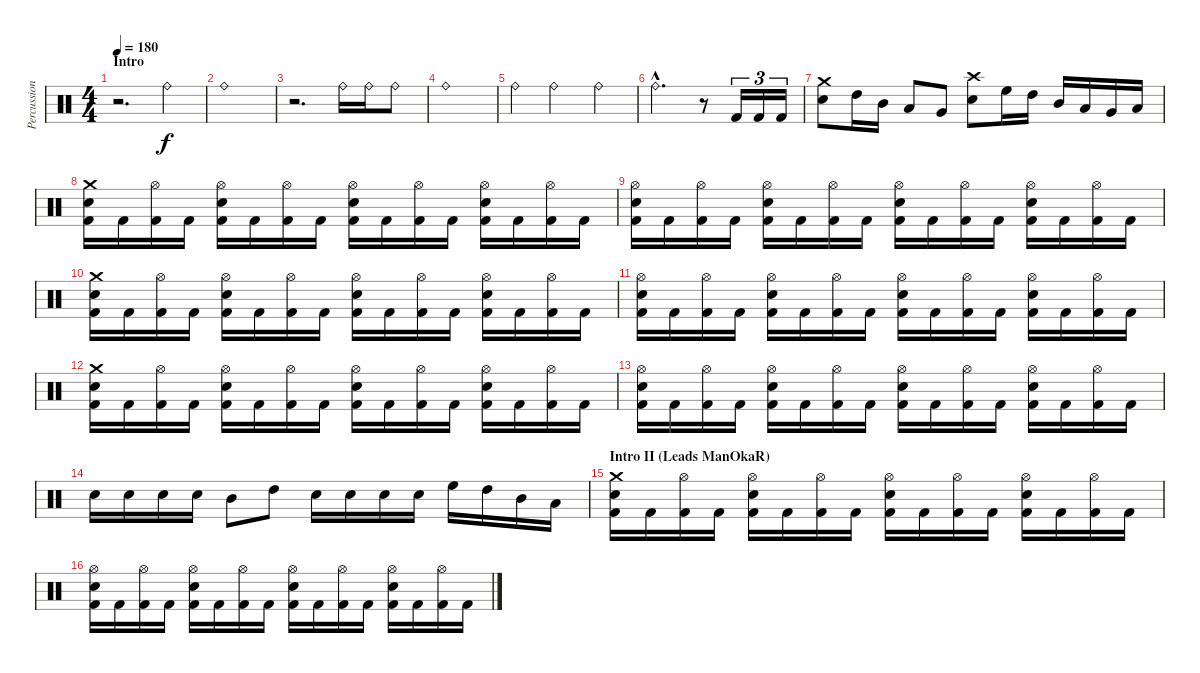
\track ("Percussion" "Percussion") {instrument percussion}
\staff {score}
\articulation defaults
\ts (4 4)
\section ("" "Intro ")
\tempo 180
\clef neutral
\ks c
r.2{d dy f} "Ride (bell)".4 |
"Ride (bell)".1 |
r.2{d} "Ride (bell)".16 "Ride (bell)".16 "Ride (bell)".8 |
"Ride (bell)".1 |
"Ride (bell)".4 "Ride (bell)".2 "Ride (bell)".4 |
"Ride (bell)"{hac}.2{d} r.8 "Kick (hit) 2".16{tu (3 2)} "Kick (hit) 2".16{tu (3 2)} "Kick (hit) 2".16{tu (3 2)} |
("Snare (hit) 2" "Crash medium (hit)").8 "High Tom (hit)".16 "Mid Tom (hit)".16 "Low Tom (hit)".8 "Very Low Tom (hit)".8 ("Snare (hit) 2" "Crash high (hit)").8 "High Floor Tom (hit)".16 "High Tom (hit)".16 "Mid Tom (hit)".16 "Low Tom (hit)".16 "Very Low Tom (hit)".16 "Low Floor Tom (hit)".16 |
("Crash medium (hit)" "Snare (hit) 2" "Kick (hit) 2").16 "Kick (hit) 2".16 ("Hi-Hat (open)" "Kick (hit) 2").16 "Kick (hit) 2".16 ("Hi-Hat (open)" "Snare (hit) 2" "Kick (hit) 2").16 "Kick (hit) 2".16 ("Hi-Hat (open)" "Kick (hit) 2").16 "Kick (hit) 2".16 ("Hi-Hat (open)" "Snare (hit) 2" "Kick (hit) 2").16 "Kick (hit) 2".16 ("Hi-Hat (open)" "Kick (hit) 2").16 "Kick (hit) 2".16 ("Hi-Hat (open)" "Snare (hit) 2" "Kick (hit) 2").16 "Kick (hit) 2".16 ("Hi-Hat (open)" "Kick (hit) 2").16 "Kick (hit) 2".16 |
("Hi-Hat (open)" "Snare (hit) 2" "Kick (hit) 2").16 "Kick (hit) 2".16 ("Hi-Hat (open)" "Kick (hit) 2").16 "Kick (hit) 2".16 ("Hi-Hat (open)" "Snare (hit) 2" "Kick (hit) 2").16 "Kick (hit) 2".16 ("Hi-Hat (open)" "Kick (hit) 2").16 "Kick (hit) 2".16 ("Hi-Hat (open)" "Snare (hit) 2" "Kick (hit) 2").16 "Kick (hit) 2".16 ("Hi-Hat (open)" "Kick (hit) 2").16 "Kick (hit) 2".16 ("Hi-Hat (open)" "Snare (hit) 2" "Kick (hit) 2").16 "Kick (hit) 2".16 ("Hi-Hat (open)" "Kick (hit) 2").16 "Kick (hit) 2".16 |
("Crash medium (hit)" "Snare (hit) 2" "Kick (hit) 2").16 "Kick (hit) 2".16 ("Hi-Hat (open)" "Kick (hit) 2").16 "Kick (hit) 2".16 ("Hi-Hat (open)" "Snare (hit) 2" "Kick (hit) 2").16 "Kick (hit) 2".16 ("Hi-Hat (open)" "Kick (hit) 2").16 "Kick (hit) 2".16 ("Hi-Hat (open)" "Snare (hit) 2" "Kick (hit) 2").16 "Kick (hit) 2".16 ("Hi-Hat (open)" "Kick (hit) 2").16 "Kick (hit) 2".16 ("Hi-Hat (open)" "Snare (hit) 2" "Kick (hit) 2").16 "Kick (hit) 2".16 ("Hi-Hat (open)" "Kick (hit) 2").16 "Kick (hit) 2".16 |
("Hi-Hat (open)" "Snare (hit) 2" "Kick (hit) 2").16 "Kick (hit) 2".16 ("Hi-Hat (open)" "Kick (hit) 2").16 "Kick (hit) 2".16 ("Hi-Hat (open)" "Snare (hit) 2" "Kick (hit) 2").16 "Kick (hit) 2".16 ("Hi-Hat (open)" "Kick (hit) 2").16 "Kick (hit) 2".16 ("Hi-Hat (open)" "Snare (hit) 2" "Kick (hit) 2").16 "Kick (hit) 2".16 ("Hi-Hat (open)" "Kick (hit) 2").16 "Kick (hit) 2".16 ("Hi-Hat (open)" "Snare (hit) 2" "Kick (hit) 2").16 "Kick (hit) 2".16 ("Hi-Hat (open)" "Kick (hit) 2").16 "Kick (hit) 2".16 |
("Crash medium (hit)" "Snare (hit) 2" "Kick (hit) 2").16 "Kick (hit) 2".16 ("Hi-Hat (open)" "Kick (hit) 2").16 "Kick (hit) 2".16 ("Hi-Hat (open)" "Snare (hit) 2" "Kick (hit) 2").16 "Kick (hit) 2".16 ("Hi-Hat (open)" "Kick (hit) 2").16 "Kick (hit) 2".16 ("Hi-Hat (open)" "Snare (hit) 2" "Kick (hit) 2").16 "Kick (hit) 2".16 ("Hi-Hat (open)" "Kick (hit) 2").16 "Kick (hit) 2".16 ("Hi-Hat (open)" "Snare (hit) 2" "Kick (hit) 2").16 "Kick (hit) 2".16 ("Hi-Hat (open)" "Kick (hit) 2").16 "Kick (hit) 2".16 |
("Hi-Hat (open)" "Snare (hit) 2" "Kick (hit) 2").16 "Kick (hit) 2".16 ("Hi-Hat (open)" "Kick (hit) 2").16 "Kick (hit) 2".16 ("Hi-Hat (open)" "Snare (hit) 2" "Kick (hit) 2").16 "Kick (hit) 2".16 ("Hi-Hat (open)" "Kick (hit) 2").16 "Kick (hit) 2".16 ("Hi-Hat (open)" "Snare (hit) 2" "Kick (hit) 2").16 "Kick (hit) 2".16 ("Hi-Hat (open)" "Kick (hit) 2").16 "Kick (hit) 2".16 ("Hi-Hat (open)" "Snare (hit) 2" "Kick (hit) 2").16 "Kick (hit) 2".16 ("Hi-Hat (open)" "Kick (hit) 2").16 "Kick (hit) 2".16 |
"Snare (hit) 2".16 "Snare (hit) 2".16 "Snare (hit) 2".16 "Snare (hit) 2".16 "Mid Tom (hit)".8 "High Tom (hit)".8 "Snare (hit) 2".16 "Snare (hit) 2".16 "Snare (hit) 2".16 "Snare (hit) 2".16 "High Floor Tom (hit)".16 "High Tom (hit)".16 "Mid Tom (hit)".16 "Low Tom (hit)".16 |
\section ("" "Intro II (Leads ManOkaR)")
("Crash medium (hit)" "Snare (hit) 2" "Kick (hit) 2").16 "Kick (hit) 2".16 ("Hi-Hat (open)" "Kick (hit) 2").16 "Kick (hit) 2".16 ("Hi-Hat (open)" "Snare (hit) 2" "Kick (hit) 2").16 "Kick (hit) 2".16 ("Hi-Hat (open)" "Kick (hit) 2").16 "Kick (hit) 2".16 ("Hi-Hat (open)" "Snare (hit) 2" "Kick (hit) 2").16 "Kick (hit) 2".16 ("Hi-Hat (open)" "Kick (hit) 2").16 "Kick (hit) 2".16 ("Hi-Hat (open)" "Snare (hit) 2" "Kick (hit) 2").16 "Kick (hit) 2".16 ("Hi-Hat (open)" "Kick (hit) 2").16 "Kick (hit) 2".16 |
("Hi-Hat (open)" "Snare (hit) 2" "Kick (hit) 2").16 "Kick (hit) 2".16 ("Hi-Hat (open)" "Kick (hit) 2").16 "Kick (hit) 2".16 ("Hi-Hat (open)" "Snare (hit) 2" "Kick (hit) 2").16 "Kick (hit) 2".16 ("Hi-Hat (open)" "Kick (hit) 2").16 "Kick (hit) 2".16 ("Hi-Hat (open)" "Snare (hit) 2" "Kick (hit) 2").16 "Kick (hit) 2".16 ("Hi-Hat (open)" "Kick (hit) 2").16 "Kick (hit) 2".16 ("Hi-Hat (open)" "Snare (hit) 2" "Kick (hit) 2").16 "Kick (hit) 2".16 ("Hi-Hat (open)" "Kick (hit) 2").16 "Kick (hit) 2".16
